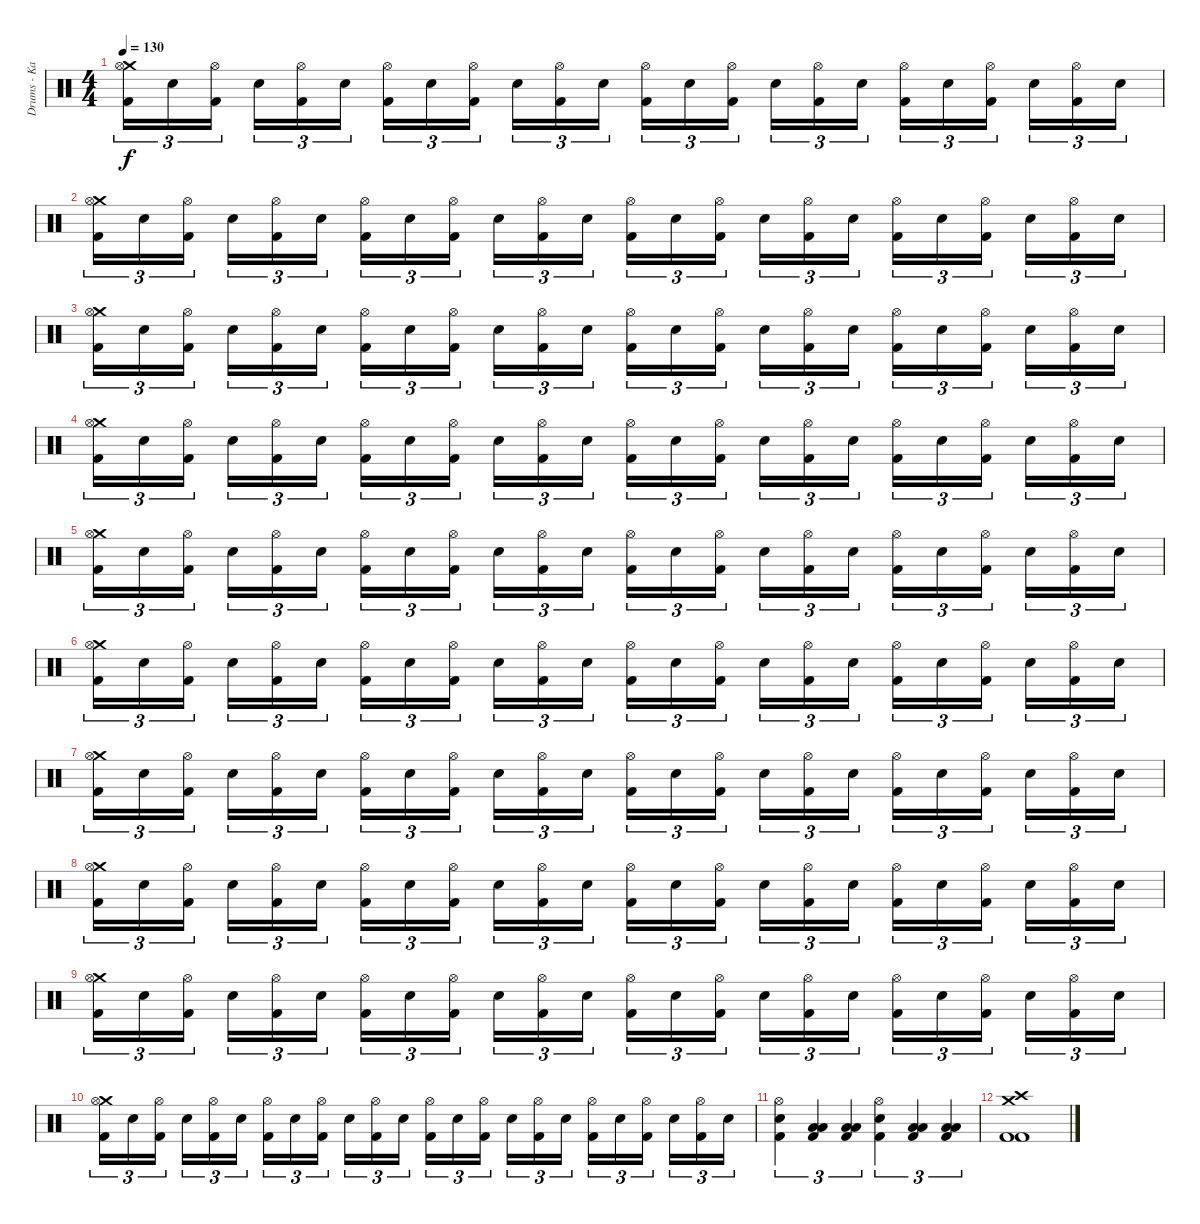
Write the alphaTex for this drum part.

\track ("Drums - Kai Hahto " "Drums - Ka") {instrument percussion}
\staff {score}
\articulation defaults
\ts (4 4)
\tempo 130
\clef neutral
\ks c
("Crash medium (hit)" "Hi-Hat (open)" "Kick (hit) 2").16{tu (3 2) dy f} "Snare (hit) 2".16{tu (3 2)} ("Hi-Hat (open)" "Kick (hit) 2").16{tu (3 2) beam splitsecondary} "Snare (hit) 2".16{tu (3 2)} ("Hi-Hat (open)" "Kick (hit) 2").16{tu (3 2)} "Snare (hit) 2".16{tu (3 2)} ("Hi-Hat (open)" "Kick (hit) 2").16{tu (3 2)} "Snare (hit) 2".16{tu (3 2)} ("Hi-Hat (open)" "Kick (hit) 2").16{tu (3 2) beam splitsecondary} "Snare (hit) 2".16{tu (3 2)} ("Hi-Hat (open)" "Kick (hit) 2").16{tu (3 2)} "Snare (hit) 2".16{tu (3 2)} ("Hi-Hat (open)" "Kick (hit) 2").16{tu (3 2)} "Snare (hit) 2".16{tu (3 2)} ("Hi-Hat (open)" "Kick (hit) 2").16{tu (3 2) beam splitsecondary} "Snare (hit) 2".16{tu (3 2)} ("Hi-Hat (open)" "Kick (hit) 2").16{tu (3 2)} "Snare (hit) 2".16{tu (3 2)} ("Hi-Hat (open)" "Kick (hit) 2").16{tu (3 2)} "Snare (hit) 2".16{tu (3 2)} ("Hi-Hat (open)" "Kick (hit) 2").16{tu (3 2) beam splitsecondary} "Snare (hit) 2".16{tu (3 2)} ("Hi-Hat (open)" "Kick (hit) 2").16{tu (3 2)} "Snare (hit) 2".16{tu (3 2)} |
("Crash medium (hit)" "Hi-Hat (open)" "Kick (hit) 2").16{tu (3 2)} "Snare (hit) 2".16{tu (3 2)} ("Hi-Hat (open)" "Kick (hit) 2").16{tu (3 2) beam splitsecondary} "Snare (hit) 2".16{tu (3 2)} ("Hi-Hat (open)" "Kick (hit) 2").16{tu (3 2)} "Snare (hit) 2".16{tu (3 2)} ("Hi-Hat (open)" "Kick (hit) 2").16{tu (3 2)} "Snare (hit) 2".16{tu (3 2)} ("Hi-Hat (open)" "Kick (hit) 2").16{tu (3 2) beam splitsecondary} "Snare (hit) 2".16{tu (3 2)} ("Hi-Hat (open)" "Kick (hit) 2").16{tu (3 2)} "Snare (hit) 2".16{tu (3 2)} ("Hi-Hat (open)" "Kick (hit) 2").16{tu (3 2)} "Snare (hit) 2".16{tu (3 2)} ("Hi-Hat (open)" "Kick (hit) 2").16{tu (3 2) beam splitsecondary} "Snare (hit) 2".16{tu (3 2)} ("Hi-Hat (open)" "Kick (hit) 2").16{tu (3 2)} "Snare (hit) 2".16{tu (3 2)} ("Hi-Hat (open)" "Kick (hit) 2").16{tu (3 2)} "Snare (hit) 2".16{tu (3 2)} ("Hi-Hat (open)" "Kick (hit) 2").16{tu (3 2) beam splitsecondary} "Snare (hit) 2".16{tu (3 2)} ("Hi-Hat (open)" "Kick (hit) 2").16{tu (3 2)} "Snare (hit) 2".16{tu (3 2)} |
("Crash medium (hit)" "Hi-Hat (open)" "Kick (hit) 2").16{tu (3 2)} "Snare (hit) 2".16{tu (3 2)} ("Hi-Hat (open)" "Kick (hit) 2").16{tu (3 2) beam splitsecondary} "Snare (hit) 2".16{tu (3 2)} ("Hi-Hat (open)" "Kick (hit) 2").16{tu (3 2)} "Snare (hit) 2".16{tu (3 2)} ("Hi-Hat (open)" "Kick (hit) 2").16{tu (3 2)} "Snare (hit) 2".16{tu (3 2)} ("Hi-Hat (open)" "Kick (hit) 2").16{tu (3 2) beam splitsecondary} "Snare (hit) 2".16{tu (3 2)} ("Hi-Hat (open)" "Kick (hit) 2").16{tu (3 2)} "Snare (hit) 2".16{tu (3 2)} ("Hi-Hat (open)" "Kick (hit) 2").16{tu (3 2)} "Snare (hit) 2".16{tu (3 2)} ("Hi-Hat (open)" "Kick (hit) 2").16{tu (3 2) beam splitsecondary} "Snare (hit) 2".16{tu (3 2)} ("Hi-Hat (open)" "Kick (hit) 2").16{tu (3 2)} "Snare (hit) 2".16{tu (3 2)} ("Hi-Hat (open)" "Kick (hit) 2").16{tu (3 2)} "Snare (hit) 2".16{tu (3 2)} ("Hi-Hat (open)" "Kick (hit) 2").16{tu (3 2) beam splitsecondary} "Snare (hit) 2".16{tu (3 2)} ("Hi-Hat (open)" "Kick (hit) 2").16{tu (3 2)} "Snare (hit) 2".16{tu (3 2)} |
("Crash medium (hit)" "Hi-Hat (open)" "Kick (hit) 2").16{tu (3 2)} "Snare (hit) 2".16{tu (3 2)} ("Hi-Hat (open)" "Kick (hit) 2").16{tu (3 2) beam splitsecondary} "Snare (hit) 2".16{tu (3 2)} ("Hi-Hat (open)" "Kick (hit) 2").16{tu (3 2)} "Snare (hit) 2".16{tu (3 2)} ("Hi-Hat (open)" "Kick (hit) 2").16{tu (3 2)} "Snare (hit) 2".16{tu (3 2)} ("Hi-Hat (open)" "Kick (hit) 2").16{tu (3 2) beam splitsecondary} "Snare (hit) 2".16{tu (3 2)} ("Hi-Hat (open)" "Kick (hit) 2").16{tu (3 2)} "Snare (hit) 2".16{tu (3 2)} ("Hi-Hat (open)" "Kick (hit) 2").16{tu (3 2)} "Snare (hit) 2".16{tu (3 2)} ("Hi-Hat (open)" "Kick (hit) 2").16{tu (3 2) beam splitsecondary} "Snare (hit) 2".16{tu (3 2)} ("Hi-Hat (open)" "Kick (hit) 2").16{tu (3 2)} "Snare (hit) 2".16{tu (3 2)} ("Hi-Hat (open)" "Kick (hit) 2").16{tu (3 2)} "Snare (hit) 2".16{tu (3 2)} ("Hi-Hat (open)" "Kick (hit) 2").16{tu (3 2) beam splitsecondary} "Snare (hit) 2".16{tu (3 2)} ("Hi-Hat (open)" "Kick (hit) 2").16{tu (3 2)} "Snare (hit) 2".16{tu (3 2)} |
("Crash medium (hit)" "Hi-Hat (open)" "Kick (hit) 2").16{tu (3 2)} "Snare (hit) 2".16{tu (3 2)} ("Hi-Hat (open)" "Kick (hit) 2").16{tu (3 2) beam splitsecondary} "Snare (hit) 2".16{tu (3 2)} ("Hi-Hat (open)" "Kick (hit) 2").16{tu (3 2)} "Snare (hit) 2".16{tu (3 2)} ("Hi-Hat (open)" "Kick (hit) 2").16{tu (3 2)} "Snare (hit) 2".16{tu (3 2)} ("Hi-Hat (open)" "Kick (hit) 2").16{tu (3 2) beam splitsecondary} "Snare (hit) 2".16{tu (3 2)} ("Hi-Hat (open)" "Kick (hit) 2").16{tu (3 2)} "Snare (hit) 2".16{tu (3 2)} ("Hi-Hat (open)" "Kick (hit) 2").16{tu (3 2)} "Snare (hit) 2".16{tu (3 2)} ("Hi-Hat (open)" "Kick (hit) 2").16{tu (3 2) beam splitsecondary} "Snare (hit) 2".16{tu (3 2)} ("Hi-Hat (open)" "Kick (hit) 2").16{tu (3 2)} "Snare (hit) 2".16{tu (3 2)} ("Hi-Hat (open)" "Kick (hit) 2").16{tu (3 2)} "Snare (hit) 2".16{tu (3 2)} ("Hi-Hat (open)" "Kick (hit) 2").16{tu (3 2) beam splitsecondary} "Snare (hit) 2".16{tu (3 2)} ("Hi-Hat (open)" "Kick (hit) 2").16{tu (3 2)} "Snare (hit) 2".16{tu (3 2)} |
("Crash medium (hit)" "Hi-Hat (open)" "Kick (hit) 2").16{tu (3 2)} "Snare (hit) 2".16{tu (3 2)} ("Hi-Hat (open)" "Kick (hit) 2").16{tu (3 2) beam splitsecondary} "Snare (hit) 2".16{tu (3 2)} ("Hi-Hat (open)" "Kick (hit) 2").16{tu (3 2)} "Snare (hit) 2".16{tu (3 2)} ("Hi-Hat (open)" "Kick (hit) 2").16{tu (3 2)} "Snare (hit) 2".16{tu (3 2)} ("Hi-Hat (open)" "Kick (hit) 2").16{tu (3 2) beam splitsecondary} "Snare (hit) 2".16{tu (3 2)} ("Hi-Hat (open)" "Kick (hit) 2").16{tu (3 2)} "Snare (hit) 2".16{tu (3 2)} ("Hi-Hat (open)" "Kick (hit) 2").16{tu (3 2)} "Snare (hit) 2".16{tu (3 2)} ("Hi-Hat (open)" "Kick (hit) 2").16{tu (3 2) beam splitsecondary} "Snare (hit) 2".16{tu (3 2)} ("Hi-Hat (open)" "Kick (hit) 2").16{tu (3 2)} "Snare (hit) 2".16{tu (3 2)} ("Hi-Hat (open)" "Kick (hit) 2").16{tu (3 2)} "Snare (hit) 2".16{tu (3 2)} ("Hi-Hat (open)" "Kick (hit) 2").16{tu (3 2) beam splitsecondary} "Snare (hit) 2".16{tu (3 2)} ("Hi-Hat (open)" "Kick (hit) 2").16{tu (3 2)} "Snare (hit) 2".16{tu (3 2)} |
("Crash medium (hit)" "Hi-Hat (open)" "Kick (hit) 2").16{tu (3 2)} "Snare (hit) 2".16{tu (3 2)} ("Hi-Hat (open)" "Kick (hit) 2").16{tu (3 2) beam splitsecondary} "Snare (hit) 2".16{tu (3 2)} ("Hi-Hat (open)" "Kick (hit) 2").16{tu (3 2)} "Snare (hit) 2".16{tu (3 2)} ("Hi-Hat (open)" "Kick (hit) 2").16{tu (3 2)} "Snare (hit) 2".16{tu (3 2)} ("Hi-Hat (open)" "Kick (hit) 2").16{tu (3 2) beam splitsecondary} "Snare (hit) 2".16{tu (3 2)} ("Hi-Hat (open)" "Kick (hit) 2").16{tu (3 2)} "Snare (hit) 2".16{tu (3 2)} ("Hi-Hat (open)" "Kick (hit) 2").16{tu (3 2)} "Snare (hit) 2".16{tu (3 2)} ("Hi-Hat (open)" "Kick (hit) 2").16{tu (3 2) beam splitsecondary} "Snare (hit) 2".16{tu (3 2)} ("Hi-Hat (open)" "Kick (hit) 2").16{tu (3 2)} "Snare (hit) 2".16{tu (3 2)} ("Hi-Hat (open)" "Kick (hit) 2").16{tu (3 2)} "Snare (hit) 2".16{tu (3 2)} ("Hi-Hat (open)" "Kick (hit) 2").16{tu (3 2) beam splitsecondary} "Snare (hit) 2".16{tu (3 2)} ("Hi-Hat (open)" "Kick (hit) 2").16{tu (3 2)} "Snare (hit) 2".16{tu (3 2)} |
("Crash medium (hit)" "Hi-Hat (open)" "Kick (hit) 2").16{tu (3 2)} "Snare (hit) 2".16{tu (3 2)} ("Hi-Hat (open)" "Kick (hit) 2").16{tu (3 2) beam splitsecondary} "Snare (hit) 2".16{tu (3 2)} ("Hi-Hat (open)" "Kick (hit) 2").16{tu (3 2)} "Snare (hit) 2".16{tu (3 2)} ("Hi-Hat (open)" "Kick (hit) 2").16{tu (3 2)} "Snare (hit) 2".16{tu (3 2)} ("Hi-Hat (open)" "Kick (hit) 2").16{tu (3 2) beam splitsecondary} "Snare (hit) 2".16{tu (3 2)} ("Hi-Hat (open)" "Kick (hit) 2").16{tu (3 2)} "Snare (hit) 2".16{tu (3 2)} ("Hi-Hat (open)" "Kick (hit) 2").16{tu (3 2)} "Snare (hit) 2".16{tu (3 2)} ("Hi-Hat (open)" "Kick (hit) 2").16{tu (3 2) beam splitsecondary} "Snare (hit) 2".16{tu (3 2)} ("Hi-Hat (open)" "Kick (hit) 2").16{tu (3 2)} "Snare (hit) 2".16{tu (3 2)} ("Hi-Hat (open)" "Kick (hit) 2").16{tu (3 2)} "Snare (hit) 2".16{tu (3 2)} ("Hi-Hat (open)" "Kick (hit) 2").16{tu (3 2) beam splitsecondary} "Snare (hit) 2".16{tu (3 2)} ("Hi-Hat (open)" "Kick (hit) 2").16{tu (3 2)} "Snare (hit) 2".16{tu (3 2)} |
("Crash medium (hit)" "Hi-Hat (open)" "Kick (hit) 2").16{tu (3 2)} "Snare (hit) 2".16{tu (3 2)} ("Hi-Hat (open)" "Kick (hit) 2").16{tu (3 2) beam splitsecondary} "Snare (hit) 2".16{tu (3 2)} ("Hi-Hat (open)" "Kick (hit) 2").16{tu (3 2)} "Snare (hit) 2".16{tu (3 2)} ("Hi-Hat (open)" "Kick (hit) 2").16{tu (3 2)} "Snare (hit) 2".16{tu (3 2)} ("Hi-Hat (open)" "Kick (hit) 2").16{tu (3 2) beam splitsecondary} "Snare (hit) 2".16{tu (3 2)} ("Hi-Hat (open)" "Kick (hit) 2").16{tu (3 2)} "Snare (hit) 2".16{tu (3 2)} ("Hi-Hat (open)" "Kick (hit) 2").16{tu (3 2)} "Snare (hit) 2".16{tu (3 2)} ("Hi-Hat (open)" "Kick (hit) 2").16{tu (3 2) beam splitsecondary} "Snare (hit) 2".16{tu (3 2)} ("Hi-Hat (open)" "Kick (hit) 2").16{tu (3 2)} "Snare (hit) 2".16{tu (3 2)} ("Hi-Hat (open)" "Kick (hit) 2").16{tu (3 2)} "Snare (hit) 2".16{tu (3 2)} ("Hi-Hat (open)" "Kick (hit) 2").16{tu (3 2) beam splitsecondary} "Snare (hit) 2".16{tu (3 2)} ("Hi-Hat (open)" "Kick (hit) 2").16{tu (3 2)} "Snare (hit) 2".16{tu (3 2)} |
("Crash medium (hit)" "Hi-Hat (open)" "Kick (hit) 2").16{tu (3 2)} "Snare (hit) 2".16{tu (3 2)} ("Hi-Hat (open)" "Kick (hit) 2").16{tu (3 2) beam splitsecondary} "Snare (hit) 2".16{tu (3 2)} ("Hi-Hat (open)" "Kick (hit) 2").16{tu (3 2)} "Snare (hit) 2".16{tu (3 2)} ("Hi-Hat (open)" "Kick (hit) 2").16{tu (3 2)} "Snare (hit) 2".16{tu (3 2)} ("Hi-Hat (open)" "Kick (hit) 2").16{tu (3 2) beam splitsecondary} "Snare (hit) 2".16{tu (3 2)} ("Hi-Hat (open)" "Kick (hit) 2").16{tu (3 2)} "Snare (hit) 2".16{tu (3 2)} ("Hi-Hat (open)" "Kick (hit) 2").16{tu (3 2)} "Snare (hit) 2".16{tu (3 2)} ("Hi-Hat (open)" "Kick (hit) 2").16{tu (3 2) beam splitsecondary} "Snare (hit) 2".16{tu (3 2)} ("Hi-Hat (open)" "Kick (hit) 2").16{tu (3 2)} "Snare (hit) 2".16{tu (3 2)} ("Hi-Hat (open)" "Kick (hit) 2").16{tu (3 2)} "Snare (hit) 2".16{tu (3 2)} ("Hi-Hat (open)" "Kick (hit) 2").16{tu (3 2) beam splitsecondary} "Snare (hit) 2".16{tu (3 2)} ("Hi-Hat (open)" "Kick (hit) 2").16{tu (3 2)} "Snare (hit) 2".16{tu (3 2)} |
("Hi-Hat (open)" "Snare (hit) 2" "Kick (hit) 2").4{tu (3 2)} ("Low Floor Tom (hit)" "Low Floor Tom (hit)" "Kick (hit) 2").4{tu (3 2)} ("Low Floor Tom (hit)" "Low Floor Tom (hit)" "Kick (hit) 2").4{tu (3 2)} ("Hi-Hat (open)" "Snare (hit) 2" "Kick (hit) 2").4{tu (3 2)} ("Low Floor Tom (hit)" "Low Floor Tom (hit)" "Kick (hit) 2").4{tu (3 2)} ("Low Floor Tom (hit)" "Low Floor Tom (hit)" "Kick (hit) 2").4{tu (3 2)} |
("Crash medium (hit)" "Crash high (hit)" "Kick (hit) 2" "Kick (hit) 2").1
